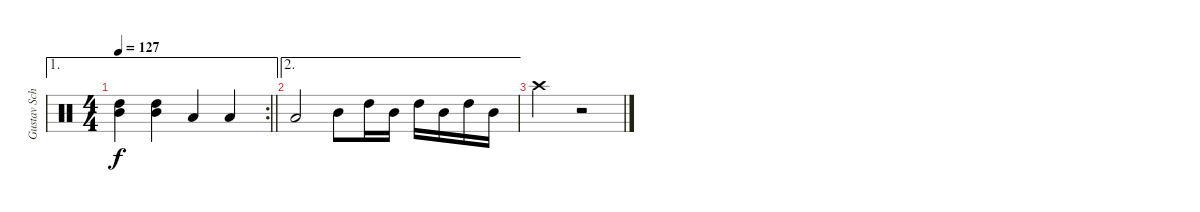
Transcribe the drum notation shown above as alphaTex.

\track ("Gustav Schäfer" "Gustav Sch") {instrument percussion}
\staff {score}
\articulation defaults
\ae 1
\rc 2
\ts (4 4)
\tempo 127
\clef neutral
\barLineRight lightlight
\ks c
("Mid Tom (hit)" "High Tom (hit)").4{dy f} ("Mid Tom (hit)" "High Tom (hit)").4 "Low Tom (hit)".4 "Low Tom (hit)".4 |
\ae 2 "Low Tom (hit)".2 "Mid Tom (hit)".8 "High Tom (hit)".16 "Mid Tom (hit)".16 "High Tom (hit)".16 "Mid Tom (hit)".16 "High Tom (hit)".16 "Mid Tom (hit)".16
|
"Crash high (hit)".2 r.2
